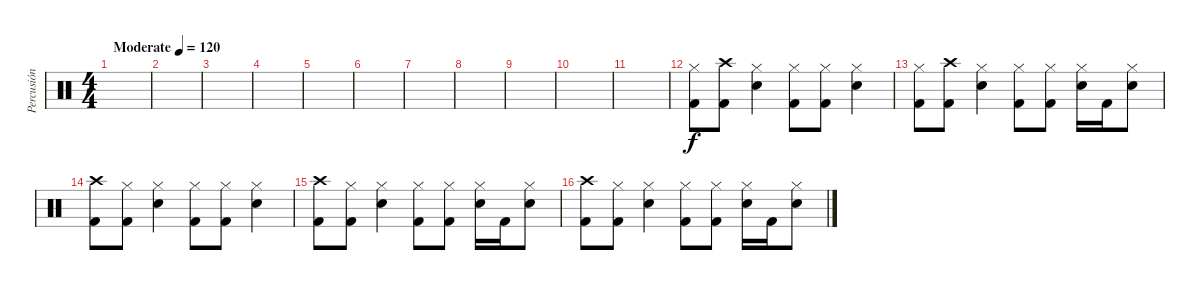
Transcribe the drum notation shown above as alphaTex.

\track ("Percusión" "Percusión") {instrument percussion}
\staff {score}
\articulation defaults
\ts (4 4)
\tempo (120 "Moderate")
\clef neutral
\ks c
|
|
|
|
|
|
|
|
|
|
|
("Kick (hit) 2" "Hi-Hat (closed)").8 ("Kick (hit) 2" "Crash high (hit)").8 ("Snare (hit) 2" "Hi-Hat (closed)").4 ("Kick (hit) 2" "Hi-Hat (closed)").8 ("Kick (hit) 2" "Hi-Hat (closed)").8 ("Snare (hit) 2" "Hi-Hat (closed)").4 |
("Kick (hit) 2" "Hi-Hat (closed)").8 ("Kick (hit) 2" "Crash high (hit)").8 ("Snare (hit) 2" "Hi-Hat (closed)").4 ("Kick (hit) 2" "Hi-Hat (closed)").8 ("Kick (hit) 2" "Hi-Hat (closed)").8 ("Snare (hit) 2" "Hi-Hat (closed)").16 "Kick (hit) 2".16 ("Snare (hit) 2" "Hi-Hat (closed)").8 |
("Kick (hit) 2" "Crash high (hit)").8 ("Kick (hit) 2" "Hi-Hat (closed)").8 ("Snare (hit) 2" "Hi-Hat (closed)").4 ("Kick (hit) 2" "Hi-Hat (closed)").8 ("Kick (hit) 2" "Hi-Hat (closed)").8 ("Snare (hit) 2" "Hi-Hat (closed)").4 |
("Kick (hit) 2" "Crash high (hit)").8 ("Kick (hit) 2" "Hi-Hat (closed)").8 ("Snare (hit) 2" "Hi-Hat (closed)").4 ("Kick (hit) 2" "Hi-Hat (closed)").8 ("Kick (hit) 2" "Hi-Hat (closed)").8 ("Snare (hit) 2" "Hi-Hat (closed)").16 "Kick (hit) 2".16 ("Snare (hit) 2" "Hi-Hat (closed)").8 |
("Kick (hit) 2" "Crash high (hit)").8 ("Kick (hit) 2" "Hi-Hat (closed)").8 ("Snare (hit) 2" "Hi-Hat (closed)").4 ("Kick (hit) 2" "Hi-Hat (closed)").8 ("Kick (hit) 2" "Hi-Hat (closed)").8 ("Snare (hit) 2" "Hi-Hat (closed)").16 "Kick (hit) 2".16 ("Snare (hit) 2" "Hi-Hat (closed)").8
